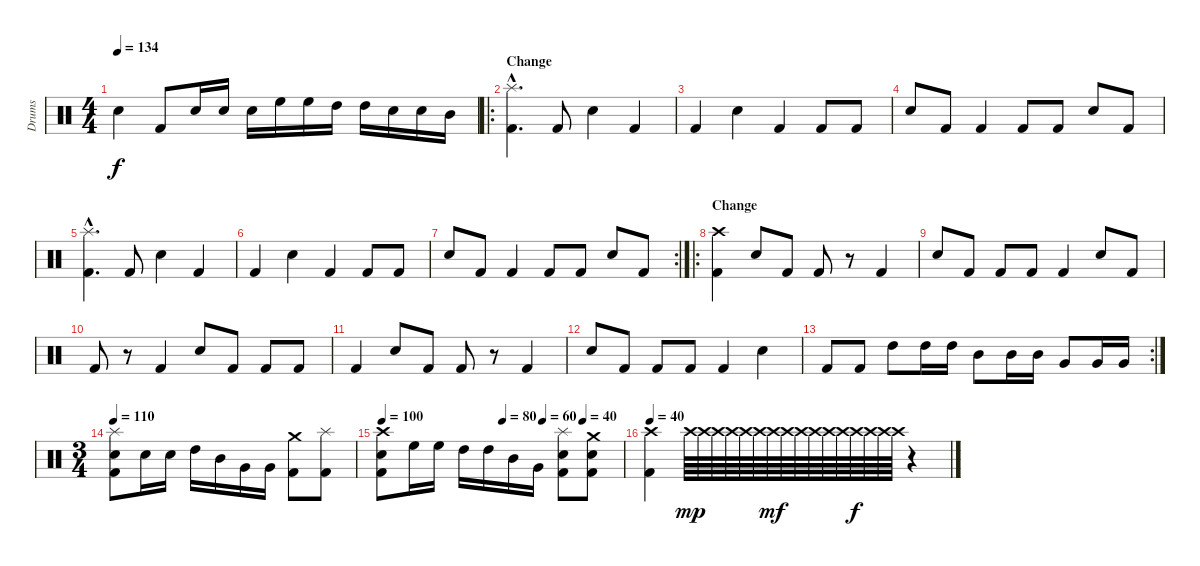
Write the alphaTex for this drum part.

\track ("Drums" "Drums") {instrument percussion}
\staff {score}
\articulation defaults
\ts (4 4)
\tempo 134
\clef neutral
\ks c "Snare (hit) 2".4{dy f} "Kick (hit) 2".8 "Snare (hit) 2".16 "Snare (hit) 2".16 "Snare (hit) 2".16 "High Floor Tom (hit)".16 "High Floor Tom (hit)".16 "High Tom (hit)".16 "High Tom (hit)".16 "Snare (hit) 2".16 "Snare (hit) 2".16 "Mid Tom (hit)".16
|
\ro
\section ("" "Change")
("Kick (hit) 2"{hac} "Splash (hit)"{hac}).4{d} "Kick (hit) 2".8 "Snare (hit) 2".4 "Kick (hit) 2".4 |
"Kick (hit) 2".4 "Snare (hit) 2".4 "Kick (hit) 2".4 "Kick (hit) 2".8 "Kick (hit) 2".8 |
"Snare (hit) 2".8 "Kick (hit) 2".8 "Kick (hit) 2".4 "Kick (hit) 2".8 "Kick (hit) 2".8 "Snare (hit) 2".8 "Kick (hit) 2".8 |
("Kick (hit) 2"{hac} "Splash (hit)"{hac}).4{d} "Kick (hit) 2".8 "Snare (hit) 2".4 "Kick (hit) 2".4 |
"Kick (hit) 2".4 "Snare (hit) 2".4 "Kick (hit) 2".4 "Kick (hit) 2".8 "Kick (hit) 2".8 |
\rc 2 "Snare (hit) 2".8 "Kick (hit) 2".8 "Kick (hit) 2".4 "Kick (hit) 2".8 "Kick (hit) 2".8 "Snare (hit) 2".8 "Kick (hit) 2".8
|
\ro
\section ("" "Change")
("Kick (hit) 2" "Crash high (hit)").4 "Snare (hit) 2".8 "Kick (hit) 2".8 "Kick (hit) 2".8 r.8 "Kick (hit) 2".4 |
"Snare (hit) 2".8 "Kick (hit) 2".8 "Kick (hit) 2".8 "Kick (hit) 2".8 "Kick (hit) 2".4 "Snare (hit) 2".8 "Kick (hit) 2".8 |
"Kick (hit) 2".8 r.8 "Kick (hit) 2".4 "Snare (hit) 2".8 "Kick (hit) 2".8 "Kick (hit) 2".8 "Kick (hit) 2".8 |
"Kick (hit) 2".4 "Snare (hit) 2".8 "Kick (hit) 2".8 "Kick (hit) 2".8 r.8 "Kick (hit) 2".4 |
"Snare (hit) 2".8 "Kick (hit) 2".8 "Kick (hit) 2".8 "Kick (hit) 2".8 "Kick (hit) 2".4 "Snare (hit) 2".4 |
\rc 2 "Kick (hit) 2".8 "Kick (hit) 2".8 "High Tom (hit)".8 "High Tom (hit)".16 "High Tom (hit)".16 "Mid Tom (hit)".8 "Mid Tom (hit)".16 "Mid Tom (hit)".16 "Very Low Tom (hit)".8 "Very Low Tom (hit)".16 "Very Low Tom (hit)".16
|
\ts (3 4)
\tempo 110
("Kick (hit) 2" "Snare (hit) 2" "Splash (hit)").8 "Snare (hit) 2".16 "Snare (hit) 2".16 "High Tom (hit)".16 "Mid Tom (hit)".16 "Very Low Tom (hit)".16 "Very Low Tom (hit)".16 ("Kick (hit) 2" "Crash medium (hit)").8 ("Kick (hit) 2" "Splash (hit)").8 |
\tempo 100
\tempo (80 0.5)
\tempo (60 0.6666666666666666)
\tempo (40 0.8333333333333334)
("Kick (hit) 2" "Snare (hit) 2" "Crash high (hit)").8 "High Floor Tom (hit)".16 "High Floor Tom (hit)".16 "High Tom (hit)".16 "High Tom (hit)".16 "Mid Tom (hit)".16 "Very Low Tom (hit)".16 ("Kick (hit) 2" "Snare (hit) 2" "Splash (hit)").8 ("Kick (hit) 2" "Snare (hit) 2" "Crash medium (hit)").8 |
\tempo 40
("Kick (hit) 2" "Crash high (hit)").4 "Crash high (hit)".64{dy mp} "Crash high (hit)".64 "Crash high (hit)".64 "Crash high (hit)".64 "Crash high (hit)".64 "Crash high (hit)".64 "Crash high (hit)".64{dy mf} "Crash high (hit)".64 "Crash high (hit)".64 "Crash high (hit)".64 "Crash high (hit)".64 "Crash high (hit)".64 "Crash high (hit)".64{dy f} "Crash high (hit)".64 "Crash high (hit)".64 "Crash high (hit)".64 r.4
